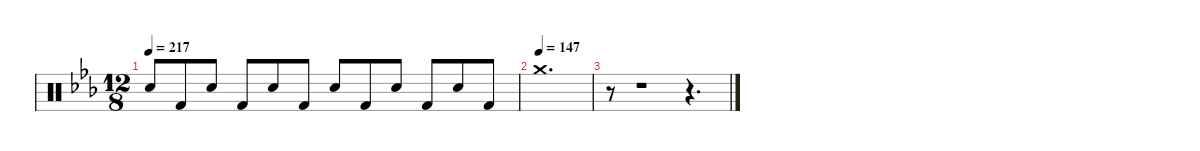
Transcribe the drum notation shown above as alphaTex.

\defaultSystemsLayout 4
\hideDynamics
\bracketExtendMode nobrackets
\singleTrackTrackNamePolicy hidden
\multiTrackTrackNamePolicy hidden
\firstSystemTrackNameMode fullname
\firstSystemTrackNameOrientation horizontal
\otherSystemsTrackNameOrientation horizontal
\track ("Beats" "drm.") {instrument percussion}
\staff {score}
\articulation defaults
\ts (12 8)
\tempo 217
\clef neutral
\ks eb "Snare (hit) 2"{acc forcenatural}.8{dy f beam Up} "Kick (hit) 2"{acc forcenatural}.8{beam Up} "Snare (hit) 2"{acc forcenatural}.8{beam Up} "Kick (hit) 2"{acc forcenatural}.8{beam Up} "Snare (hit) 2"{acc forcenatural}.8{beam Up} "Kick (hit) 2"{acc forcenatural}.8{beam Up} "Snare (hit) 2"{acc forcenatural}.8{beam Up} "Kick (hit) 2"{acc forcenatural}.8{beam Up} "Snare (hit) 2"{acc forcenatural}.8{beam Up} "Kick (hit) 2"{acc forcenatural}.8{beam Up} "Snare (hit) 2"{acc forcenatural}.8{beam Up} "Kick (hit) 2"{acc forcenatural}.8{beam Up}
|
\tempo (147)
"Crash medium (hit)"{acc forcenatural}.1{d beam Down} |
r.8{beam Down} r.1{beam Down} r.4{d beam Down}
